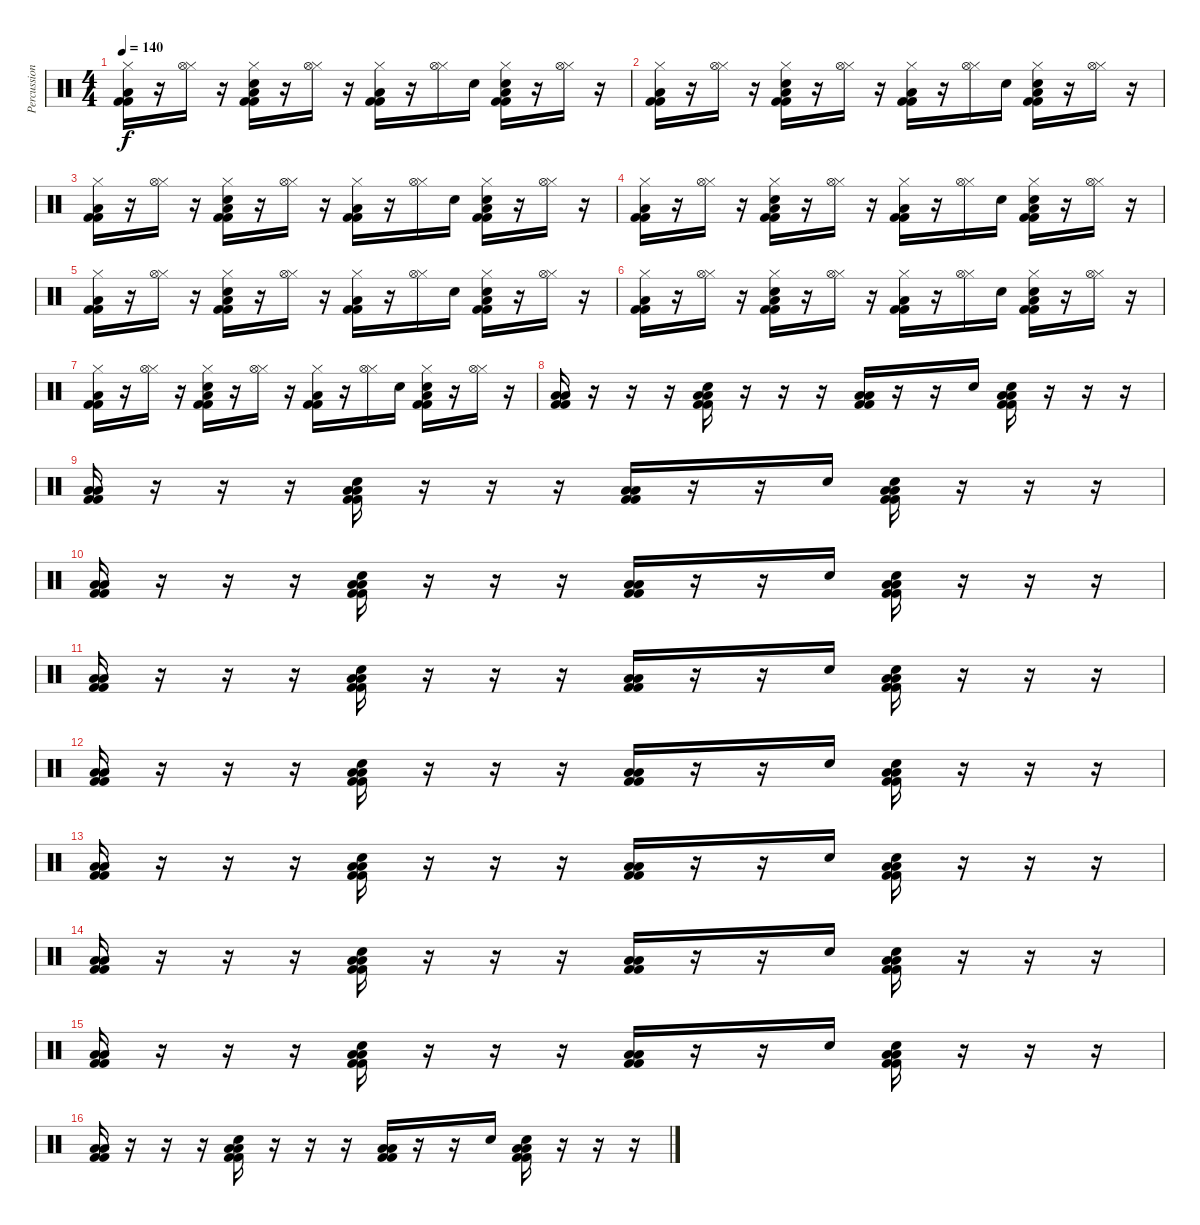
\track ("Percussion" "Percussion") {instrument percussion}
\staff {score}
\articulation defaults
\ts (4 4)
\tempo 140
\clef neutral
\ks c
("Hi-Hat (closed)" "Low Tom (hit)" "Kick (hit) 2" "Kick (hit) 2").16{dy f} r.16 ("Hi-Hat (closed)" "Hi-Hat (open)").16 r.16 ("Hi-Hat (closed)" "Low Tom (hit)" "Kick (hit) 2" "Kick (hit) 2" "Hand Clap (hit)").16 r.16 ("Hi-Hat (closed)" "Hi-Hat (open)").16 r.16 ("Hi-Hat (closed)" "Low Tom (hit)" "Kick (hit) 2" "Kick (hit) 2").16 r.16 ("Hi-Hat (closed)" "Hi-Hat (open)").16 "Hand Clap (hit)".16 ("Hi-Hat (closed)" "Low Tom (hit)" "Kick (hit) 2" "Kick (hit) 2" "Hand Clap (hit)").16 r.16 ("Hi-Hat (closed)" "Hi-Hat (open)").16 r.16 |
("Hi-Hat (closed)" "Low Tom (hit)" "Kick (hit) 2" "Kick (hit) 2").16 r.16 ("Hi-Hat (closed)" "Hi-Hat (open)").16 r.16 ("Hi-Hat (closed)" "Low Tom (hit)" "Kick (hit) 2" "Kick (hit) 2" "Hand Clap (hit)").16 r.16 ("Hi-Hat (closed)" "Hi-Hat (open)").16 r.16 ("Hi-Hat (closed)" "Low Tom (hit)" "Kick (hit) 2" "Kick (hit) 2").16 r.16 ("Hi-Hat (closed)" "Hi-Hat (open)").16 "Hand Clap (hit)".16 ("Hi-Hat (closed)" "Low Tom (hit)" "Kick (hit) 2" "Kick (hit) 2" "Hand Clap (hit)").16 r.16 ("Hi-Hat (closed)" "Hi-Hat (open)").16 r.16 |
("Hi-Hat (closed)" "Low Tom (hit)" "Kick (hit) 2" "Kick (hit) 2").16 r.16 ("Hi-Hat (closed)" "Hi-Hat (open)").16 r.16 ("Hi-Hat (closed)" "Low Tom (hit)" "Kick (hit) 2" "Kick (hit) 2" "Hand Clap (hit)").16 r.16 ("Hi-Hat (closed)" "Hi-Hat (open)").16 r.16 ("Hi-Hat (closed)" "Low Tom (hit)" "Kick (hit) 2" "Kick (hit) 2").16 r.16 ("Hi-Hat (closed)" "Hi-Hat (open)").16 "Hand Clap (hit)".16 ("Hi-Hat (closed)" "Low Tom (hit)" "Kick (hit) 2" "Kick (hit) 2" "Hand Clap (hit)").16 r.16 ("Hi-Hat (closed)" "Hi-Hat (open)").16 r.16 |
("Hi-Hat (closed)" "Low Tom (hit)" "Kick (hit) 2" "Kick (hit) 2").16 r.16 ("Hi-Hat (closed)" "Hi-Hat (open)").16 r.16 ("Hi-Hat (closed)" "Low Tom (hit)" "Kick (hit) 2" "Kick (hit) 2" "Hand Clap (hit)").16 r.16 ("Hi-Hat (closed)" "Hi-Hat (open)").16 r.16 ("Hi-Hat (closed)" "Low Tom (hit)" "Kick (hit) 2" "Kick (hit) 2").16 r.16 ("Hi-Hat (closed)" "Hi-Hat (open)").16 "Hand Clap (hit)".16 ("Hi-Hat (closed)" "Low Tom (hit)" "Kick (hit) 2" "Kick (hit) 2" "Hand Clap (hit)").16 r.16 ("Hi-Hat (closed)" "Hi-Hat (open)").16 r.16 |
("Hi-Hat (closed)" "Low Tom (hit)" "Kick (hit) 2" "Kick (hit) 2").16 r.16 ("Hi-Hat (closed)" "Hi-Hat (open)").16 r.16 ("Hi-Hat (closed)" "Low Tom (hit)" "Kick (hit) 2" "Kick (hit) 2" "Hand Clap (hit)").16 r.16 ("Hi-Hat (closed)" "Hi-Hat (open)").16 r.16 ("Hi-Hat (closed)" "Low Tom (hit)" "Kick (hit) 2" "Kick (hit) 2").16 r.16 ("Hi-Hat (closed)" "Hi-Hat (open)").16 "Hand Clap (hit)".16 ("Hi-Hat (closed)" "Low Tom (hit)" "Kick (hit) 2" "Kick (hit) 2" "Hand Clap (hit)").16 r.16 ("Hi-Hat (closed)" "Hi-Hat (open)").16 r.16 |
("Hi-Hat (closed)" "Low Tom (hit)" "Kick (hit) 2" "Kick (hit) 2").16 r.16 ("Hi-Hat (closed)" "Hi-Hat (open)").16 r.16 ("Hi-Hat (closed)" "Low Tom (hit)" "Kick (hit) 2" "Kick (hit) 2" "Hand Clap (hit)").16 r.16 ("Hi-Hat (closed)" "Hi-Hat (open)").16 r.16 ("Hi-Hat (closed)" "Low Tom (hit)" "Kick (hit) 2" "Kick (hit) 2").16 r.16 ("Hi-Hat (closed)" "Hi-Hat (open)").16 "Hand Clap (hit)".16 ("Hi-Hat (closed)" "Low Tom (hit)" "Kick (hit) 2" "Kick (hit) 2" "Hand Clap (hit)").16 r.16 ("Hi-Hat (closed)" "Hi-Hat (open)").16 r.16 |
("Hi-Hat (closed)" "Low Tom (hit)" "Kick (hit) 2" "Kick (hit) 2").16 r.16 ("Hi-Hat (closed)" "Hi-Hat (open)").16 r.16 ("Hi-Hat (closed)" "Low Tom (hit)" "Kick (hit) 2" "Kick (hit) 2" "Hand Clap (hit)").16 r.16 ("Hi-Hat (closed)" "Hi-Hat (open)").16 r.16 ("Hi-Hat (closed)" "Low Tom (hit)" "Kick (hit) 2" "Kick (hit) 2").16 r.16 ("Hi-Hat (closed)" "Hi-Hat (open)").16 "Hand Clap (hit)".16 ("Hi-Hat (closed)" "Low Tom (hit)" "Kick (hit) 2" "Kick (hit) 2" "Hand Clap (hit)").16 r.16 ("Hi-Hat (closed)" "Hi-Hat (open)").16 r.16 |
("Low Tom (hit)" "Low Tom (hit)" "Kick (hit) 2" "Kick (hit) 2").16 r.16 r.16 r.16 ("Low Tom (hit)" "Low Tom (hit)" "Kick (hit) 2" "Kick (hit) 2" "Hand Clap (hit)").16 r.16 r.16 r.16 ("Low Tom (hit)" "Low Tom (hit)" "Kick (hit) 2" "Kick (hit) 2").16 r.16 r.16 "Hand Clap (hit)".16 ("Low Tom (hit)" "Low Tom (hit)" "Kick (hit) 2" "Kick (hit) 2" "Hand Clap (hit)").16 r.16 r.16 r.16 |
("Low Tom (hit)" "Low Tom (hit)" "Kick (hit) 2" "Kick (hit) 2").16 r.16 r.16 r.16 ("Low Tom (hit)" "Low Tom (hit)" "Kick (hit) 2" "Kick (hit) 2" "Hand Clap (hit)").16 r.16 r.16 r.16 ("Low Tom (hit)" "Low Tom (hit)" "Kick (hit) 2" "Kick (hit) 2").16 r.16 r.16 "Hand Clap (hit)".16 ("Low Tom (hit)" "Low Tom (hit)" "Kick (hit) 2" "Kick (hit) 2" "Hand Clap (hit)").16 r.16 r.16 r.16 |
("Low Tom (hit)" "Low Tom (hit)" "Kick (hit) 2" "Kick (hit) 2").16 r.16 r.16 r.16 ("Low Tom (hit)" "Low Tom (hit)" "Kick (hit) 2" "Kick (hit) 2" "Hand Clap (hit)").16 r.16 r.16 r.16 ("Low Tom (hit)" "Low Tom (hit)" "Kick (hit) 2" "Kick (hit) 2").16 r.16 r.16 "Hand Clap (hit)".16 ("Low Tom (hit)" "Low Tom (hit)" "Kick (hit) 2" "Kick (hit) 2" "Hand Clap (hit)").16 r.16 r.16 r.16 |
("Low Tom (hit)" "Low Tom (hit)" "Kick (hit) 2" "Kick (hit) 2").16 r.16 r.16 r.16 ("Low Tom (hit)" "Low Tom (hit)" "Kick (hit) 2" "Kick (hit) 2" "Hand Clap (hit)").16 r.16 r.16 r.16 ("Low Tom (hit)" "Low Tom (hit)" "Kick (hit) 2" "Kick (hit) 2").16 r.16 r.16 "Hand Clap (hit)".16 ("Low Tom (hit)" "Low Tom (hit)" "Kick (hit) 2" "Kick (hit) 2" "Hand Clap (hit)").16 r.16 r.16 r.16 |
("Low Tom (hit)" "Low Tom (hit)" "Kick (hit) 2" "Kick (hit) 2").16 r.16 r.16 r.16 ("Low Tom (hit)" "Low Tom (hit)" "Kick (hit) 2" "Kick (hit) 2" "Hand Clap (hit)").16 r.16 r.16 r.16 ("Low Tom (hit)" "Low Tom (hit)" "Kick (hit) 2" "Kick (hit) 2").16 r.16 r.16 "Hand Clap (hit)".16 ("Low Tom (hit)" "Low Tom (hit)" "Kick (hit) 2" "Kick (hit) 2" "Hand Clap (hit)").16 r.16 r.16 r.16 |
("Low Tom (hit)" "Low Tom (hit)" "Kick (hit) 2" "Kick (hit) 2").16 r.16 r.16 r.16 ("Low Tom (hit)" "Low Tom (hit)" "Kick (hit) 2" "Kick (hit) 2" "Hand Clap (hit)").16 r.16 r.16 r.16 ("Low Tom (hit)" "Low Tom (hit)" "Kick (hit) 2" "Kick (hit) 2").16 r.16 r.16 "Hand Clap (hit)".16 ("Low Tom (hit)" "Low Tom (hit)" "Kick (hit) 2" "Kick (hit) 2" "Hand Clap (hit)").16 r.16 r.16 r.16 |
("Low Tom (hit)" "Low Tom (hit)" "Kick (hit) 2" "Kick (hit) 2").16 r.16 r.16 r.16 ("Low Tom (hit)" "Low Tom (hit)" "Kick (hit) 2" "Kick (hit) 2" "Hand Clap (hit)").16 r.16 r.16 r.16 ("Low Tom (hit)" "Low Tom (hit)" "Kick (hit) 2" "Kick (hit) 2").16 r.16 r.16 "Hand Clap (hit)".16 ("Low Tom (hit)" "Low Tom (hit)" "Kick (hit) 2" "Kick (hit) 2" "Hand Clap (hit)").16 r.16 r.16 r.16 |
("Low Tom (hit)" "Low Tom (hit)" "Kick (hit) 2" "Kick (hit) 2").16 r.16 r.16 r.16 ("Low Tom (hit)" "Low Tom (hit)" "Kick (hit) 2" "Kick (hit) 2" "Hand Clap (hit)").16 r.16 r.16 r.16 ("Low Tom (hit)" "Low Tom (hit)" "Kick (hit) 2" "Kick (hit) 2").16 r.16 r.16 "Hand Clap (hit)".16 ("Low Tom (hit)" "Low Tom (hit)" "Kick (hit) 2" "Kick (hit) 2" "Hand Clap (hit)").16 r.16 r.16 r.16 |
("Low Tom (hit)" "Low Tom (hit)" "Kick (hit) 2" "Kick (hit) 2").16 r.16 r.16 r.16 ("Low Tom (hit)" "Low Tom (hit)" "Kick (hit) 2" "Kick (hit) 2" "Hand Clap (hit)").16 r.16 r.16 r.16 ("Low Tom (hit)" "Low Tom (hit)" "Kick (hit) 2" "Kick (hit) 2").16 r.16 r.16 "Hand Clap (hit)".16 ("Low Tom (hit)" "Low Tom (hit)" "Kick (hit) 2" "Kick (hit) 2" "Hand Clap (hit)").16 r.16 r.16 r.16
